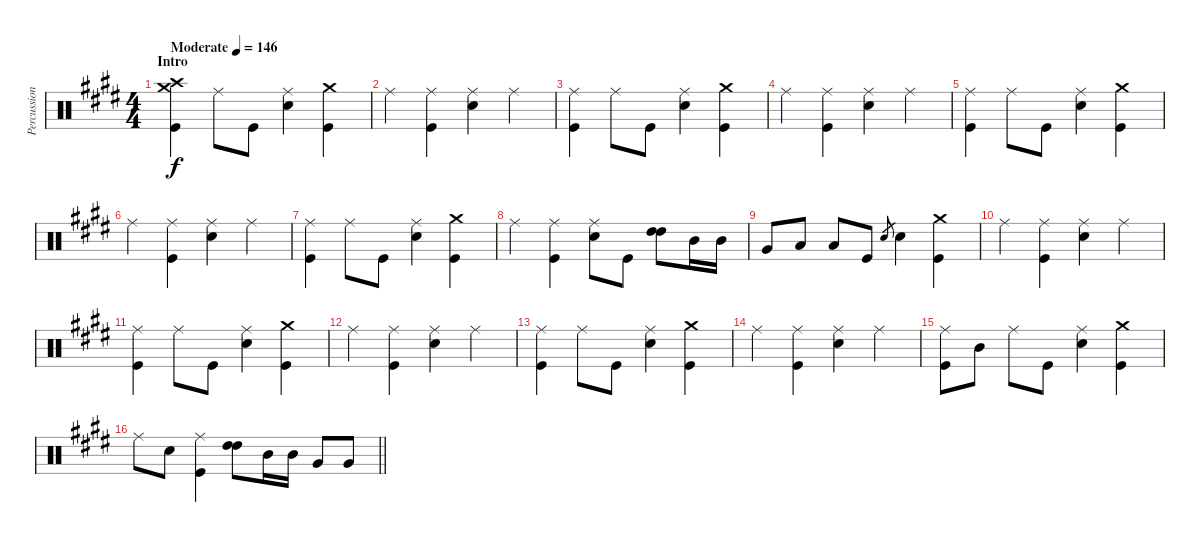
\track ("Percussion" "Percussion") {instrument percussion}
\staff {score}
\articulation defaults
\ts (4 4)
\section ("" "Intro")
\tempo (146 "Moderate")
\clef neutral
\ks e
("Crash medium (hit)" "Crash high (hit)" "Kick (hit)").4{dy f} "Ride (middle)".8 "Kick (hit)".8 ("Ride (middle)" "Electric Snare (hit)").4 ("Crash medium (hit)" "Kick (hit)").4 |
"Ride (middle)".4 ("Ride (middle)" "Kick (hit)").4 ("Ride (middle)" "Electric Snare (hit)").4 "Ride (middle)".4 |
("Ride (middle)" "Kick (hit)").4 "Ride (middle)".8 "Kick (hit)".8 ("Ride (middle)" "Electric Snare (hit)").4 ("Crash medium (hit)" "Kick (hit)").4 |
"Ride (middle)".4 ("Ride (middle)" "Kick (hit)").4 ("Ride (middle)" "Electric Snare (hit)").4 "Ride (middle)".4 |
("Ride (middle)" "Kick (hit)").4 "Ride (middle)".8 "Kick (hit)".8 ("Ride (middle)" "Electric Snare (hit)").4 ("Crash medium (hit)" "Kick (hit)").4 |
"Ride (middle)".4 ("Ride (middle)" "Kick (hit)").4 ("Ride (middle)" "Electric Snare (hit)").4 "Ride (middle)".4 |
("Ride (middle)" "Kick (hit)").4 "Ride (middle)".8 "Kick (hit)".8 ("Ride (middle)" "Electric Snare (hit)").4 ("Crash medium (hit)" "Kick (hit)").4 |
"Ride (middle)".4 ("Ride (middle)" "Kick (hit)").4 ("Ride (middle)" "Electric Snare (hit)").8 "Kick (hit)".8 ("High Tom (hit)" "High Tom (hit)").8 "Mid Tom (hit)".16 "Mid Tom (hit)".16 |
"Very Low Tom (hit)".8 "Low Tom (hit)".8 "Low Floor Tom (hit)".8 "Kick (hit)".8 "Electric Snare (hit)".8{gr} "Electric Snare (hit)".4 ("Crash medium (hit)" "Kick (hit)").4 |
"Ride (middle)".4 ("Ride (middle)" "Kick (hit)").4 ("Ride (middle)" "Electric Snare (hit)").4 "Ride (middle)".4 |
("Ride (middle)" "Kick (hit)").4 "Ride (middle)".8 "Kick (hit)".8 ("Ride (middle)" "Electric Snare (hit)").4 ("Crash medium (hit)" "Kick (hit)").4 |
"Ride (middle)".4 ("Ride (middle)" "Kick (hit)").4 ("Ride (middle)" "Electric Snare (hit)").4 "Ride (middle)".4 |
("Ride (middle)" "Kick (hit)").4 "Ride (middle)".8 "Kick (hit)".8 ("Ride (middle)" "Electric Snare (hit)").4 ("Crash medium (hit)" "Kick (hit)").4 |
"Ride (middle)".4 ("Ride (middle)" "Kick (hit)").4 ("Ride (middle)" "Electric Snare (hit)").4 "Ride (middle)".4 |
("Ride (middle)" "Kick (hit)").8 "Mid Tom (hit)".8 "Ride (middle)".8 "Kick (hit)".8 ("Ride (middle)" "Electric Snare (hit)").4 ("Crash medium (hit)" "Kick (hit)").4 |
\barLineRight lightlight "Ride (middle)".8 "Electric Snare (hit)".8
("Ride (middle)" "Kick (hit)").4 ("High Tom (hit)" "High Tom (hit)").8 "Mid Tom (hit)".16 "Mid Tom (hit)".16 "Very Low Tom (hit)".8 "Very Low Tom (hit)".8
